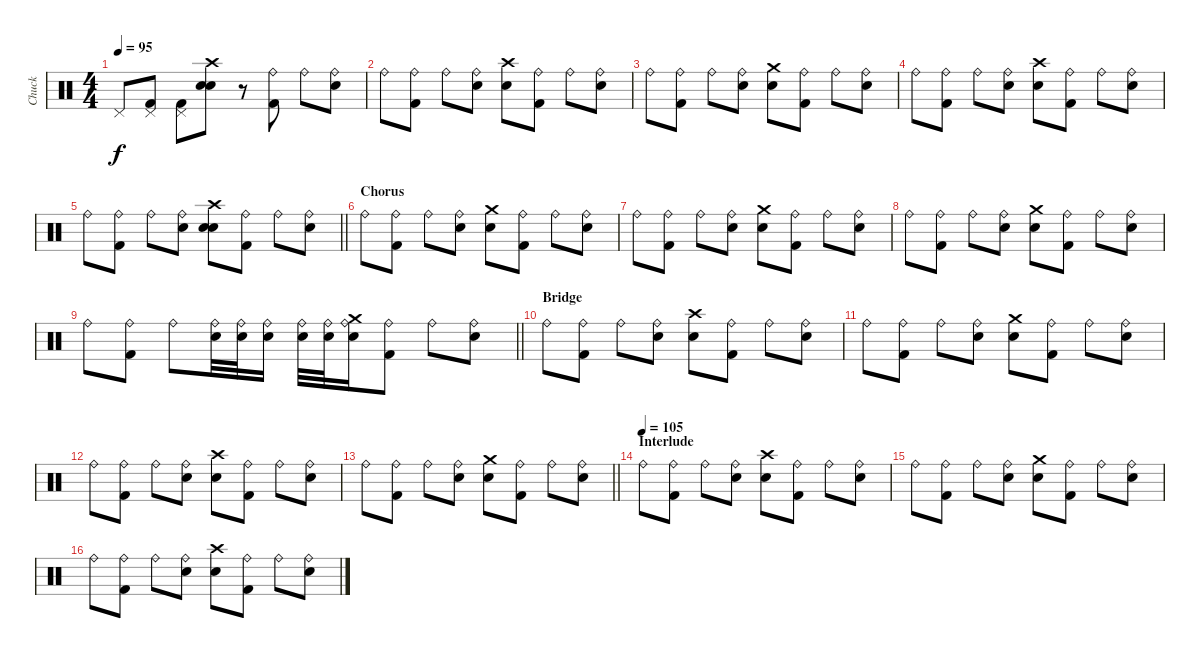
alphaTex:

\track ("Chuck" "Chuck") {instrument percussion}
\staff {score}
\articulation defaults
\ts (4 4)
\tempo 95
\clef neutral
\ks c "Pedal Hi-Hat (hit)".8{dy f}
("Pedal Hi-Hat (hit)" "Kick (hit) 2").8 ("Pedal Hi-Hat (hit)" "Kick (hit) 2").8 ("Crash high (hit)" "Electric Snare (hit)" "Snare (hit) 2").8 r.8 ("Ride (bell)" "Kick (hit) 2").8 "Ride (bell)".8 ("Ride (bell)" "Snare (hit) 2").8 |
"Ride (bell)".8 ("Ride (bell)" "Kick (hit) 2").8 "Ride (bell)".8 ("Ride (bell)" "Snare (hit) 2").8 ("Crash high (hit)" "Snare (hit) 2").8 ("Ride (bell)" "Kick (hit) 2").8 "Ride (bell)".8 ("Ride (bell)" "Snare (hit) 2").8 |
"Ride (bell)".8 ("Ride (bell)" "Kick (hit) 2").8 "Ride (bell)".8 ("Ride (bell)" "Snare (hit) 2").8 ("Crash medium (hit)" "Snare (hit) 2").8 ("Ride (bell)" "Kick (hit) 2").8 "Ride (bell)".8 ("Ride (bell)" "Snare (hit) 2").8 |
"Ride (bell)".8 ("Ride (bell)" "Kick (hit) 2").8 "Ride (bell)".8 ("Ride (bell)" "Snare (hit) 2").8 ("Crash high (hit)" "Snare (hit) 2").8 ("Ride (bell)" "Kick (hit) 2").8 "Ride (bell)".8 ("Ride (bell)" "Snare (hit) 2").8 |
\barLineRight lightlight "Ride (bell)".8
("Ride (bell)" "Kick (hit) 2").8 "Ride (bell)".8 ("Ride (bell)" "Snare (hit) 2").8 ("Crash high (hit)" "Electric Snare (hit)" "Snare (hit) 2").8 ("Ride (bell)" "Kick (hit) 2").8 "Ride (bell)".8 ("Ride (bell)" "Snare (hit) 2").8 |
\section ("" "Chorus")
"Ride (bell)".8 ("Ride (bell)" "Kick (hit) 2").8 "Ride (bell)".8 ("Ride (bell)" "Snare (hit) 2").8 ("Crash medium (hit)" "Snare (hit) 2").8 ("Ride (bell)" "Kick (hit) 2").8 "Ride (bell)".8 ("Ride (bell)" "Snare (hit) 2").8 |
"Ride (bell)".8 ("Ride (bell)" "Kick (hit) 2").8 "Ride (bell)".8 ("Ride (bell)" "Snare (hit) 2").8 ("Crash medium (hit)" "Snare (hit) 2").8 ("Ride (bell)" "Kick (hit) 2").8 "Ride (bell)".8 ("Ride (bell)" "Snare (hit) 2").8 |
"Ride (bell)".8 ("Ride (bell)" "Kick (hit) 2").8 "Ride (bell)".8 ("Ride (bell)" "Snare (hit) 2").8 ("Crash medium (hit)" "Snare (hit) 2").8 ("Ride (bell)" "Kick (hit) 2").8 "Ride (bell)".8 ("Ride (bell)" "Snare (hit) 2").8 |
\barLineRight lightlight "Ride (bell)".8
("Ride (bell)" "Kick (hit) 2").8 "Ride (bell)".8 ("Ride (bell)" "Snare (hit) 2").32 ("Ride (bell)" "Snare (hit) 2").32 ("Ride (bell)" "Snare (hit) 2").16 ("Ride (bell)" "Snare (hit) 2").32 ("Ride (bell)" "Snare (hit) 2").32 ("Ride (bell)" "Crash medium (hit)" "Snare (hit) 2").16 ("Ride (bell)" "Kick (hit) 2").8 "Ride (bell)".8 ("Ride (bell)" "Snare (hit) 2").8 |
\section ("" "Bridge")
"Ride (bell)".8 ("Ride (bell)" "Kick (hit) 2").8 "Ride (bell)".8 ("Ride (bell)" "Snare (hit) 2").8 ("Crash high (hit)" "Snare (hit) 2").8 ("Ride (bell)" "Kick (hit) 2").8 "Ride (bell)".8 ("Ride (bell)" "Snare (hit) 2").8 |
"Ride (bell)".8 ("Ride (bell)" "Kick (hit) 2").8 "Ride (bell)".8 ("Ride (bell)" "Snare (hit) 2").8 ("Crash medium (hit)" "Snare (hit) 2").8 ("Ride (bell)" "Kick (hit) 2").8 "Ride (bell)".8 ("Ride (bell)" "Snare (hit) 2").8 |
"Ride (bell)".8 ("Ride (bell)" "Kick (hit) 2").8 "Ride (bell)".8 ("Ride (bell)" "Snare (hit) 2").8 ("Crash high (hit)" "Snare (hit) 2").8 ("Ride (bell)" "Kick (hit) 2").8 "Ride (bell)".8 ("Ride (bell)" "Snare (hit) 2").8 |
\barLineRight lightlight "Ride (bell)".8
("Ride (bell)" "Kick (hit) 2").8 "Ride (bell)".8 ("Ride (bell)" "Snare (hit) 2").8 ("Crash medium (hit)" "Snare (hit) 2").8 ("Ride (bell)" "Kick (hit) 2").8 "Ride (bell)".8 ("Ride (bell)" "Snare (hit) 2").8 |
\section ("" "Interlude")
\tempo (105)
"Ride (bell)".8 ("Ride (bell)" "Kick (hit) 2").8 "Ride (bell)".8 ("Ride (bell)" "Snare (hit) 2").8 ("Crash high (hit)" "Snare (hit) 2").8 ("Ride (bell)" "Kick (hit) 2").8 "Ride (bell)".8 ("Ride (bell)" "Snare (hit) 2").8 |
"Ride (bell)".8 ("Ride (bell)" "Kick (hit) 2").8 "Ride (bell)".8 ("Ride (bell)" "Snare (hit) 2").8 ("Crash medium (hit)" "Snare (hit) 2").8 ("Ride (bell)" "Kick (hit) 2").8 "Ride (bell)".8 ("Ride (bell)" "Snare (hit) 2").8 |
"Ride (bell)".8 ("Ride (bell)" "Kick (hit) 2").8 "Ride (bell)".8 ("Ride (bell)" "Snare (hit) 2").8 ("Crash high (hit)" "Snare (hit) 2").8 ("Ride (bell)" "Kick (hit) 2").8 "Ride (bell)".8 ("Ride (bell)" "Snare (hit) 2").8
